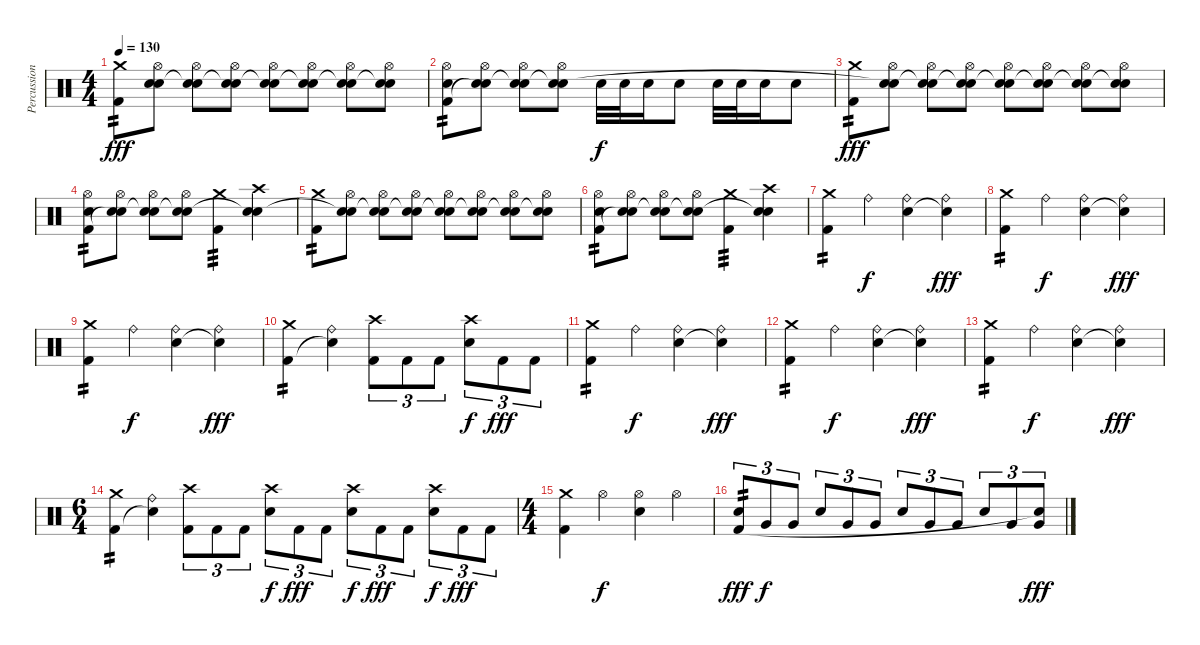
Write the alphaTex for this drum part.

\track ("Percussion" "Percussion") {instrument percussion}
\staff {score}
\articulation defaults
\ts (4 4)
\tempo 130
\clef neutral
\ks c
("Crash medium (hit)" "Kick (hit) 2").8{tp 2 dy fff} ("Hi-Hat (open)" "Electric Snare (hit)" "Snare (hit)"{t}).8 ("Hi-Hat (open)" "Electric Snare (hit)" "Snare (hit)"{t}).8 ("Hi-Hat (open)" "Electric Snare (hit)" "Snare (hit)"{t}).8 ("Hi-Hat (open)" "Electric Snare (hit)" "Snare (hit)"{t}).8 ("Hi-Hat (open)" "Electric Snare (hit)" "Snare (hit)"{t}).8 ("Hi-Hat (open)" "Electric Snare (hit)" "Snare (hit)"{t}).8 ("Hi-Hat (open)" "Electric Snare (hit)" "Snare (hit)"{t}).8 |
("Hi-Hat (open)" "Electric Snare (hit)" "Kick (hit) 2").8{tp 2} ("Hi-Hat (open)" "Electric Snare (hit)" "Snare (hit)"{t}).8 ("Hi-Hat (open)" "Electric Snare (hit)" "Snare (hit)"{t}).8 ("Hi-Hat (open)" "Electric Snare (hit)" "Snare (hit)"{t}).8 "Electric Snare (hit)".32{dy f} "Electric Snare (hit)".32 "Electric Snare (hit)".16 "Electric Snare (hit)".8 "Electric Snare (hit)".32 "Electric Snare (hit)".32 "Electric Snare (hit)".16 "Electric Snare (hit)".8 |
("Crash medium (hit)" "Kick (hit) 2").8{tp 2 dy fff} ("Hi-Hat (open)" "Electric Snare (hit)" "Snare (hit)"{t}).8 ("Hi-Hat (open)" "Electric Snare (hit)" "Snare (hit)"{t}).8 ("Hi-Hat (open)" "Electric Snare (hit)" "Snare (hit)"{t}).8 ("Hi-Hat (open)" "Electric Snare (hit)" "Snare (hit)"{t}).8 ("Hi-Hat (open)" "Electric Snare (hit)" "Snare (hit)"{t}).8 ("Hi-Hat (open)" "Electric Snare (hit)" "Snare (hit)"{t}).8 ("Hi-Hat (open)" "Electric Snare (hit)" "Snare (hit)"{t}).8 |
("Hi-Hat (open)" "Electric Snare (hit)" "Kick (hit) 2").8{tp 2} ("Hi-Hat (open)" "Electric Snare (hit)" "Snare (hit)"{t}).8 ("Hi-Hat (open)" "Electric Snare (hit)" "Snare (hit)"{t}).8 ("Hi-Hat (open)" "Electric Snare (hit)" "Snare (hit)"{t}).8 ("Crash medium (hit)" "Kick (hit) 2").4{tp 3} ("Crash high (hit)" "Electric Snare (hit)" "Snare (hit)"{t}).4 |
("Crash medium (hit)" "Kick (hit) 2").8{tp 2} ("Hi-Hat (open)" "Electric Snare (hit)" "Snare (hit)"{t}).8 ("Hi-Hat (open)" "Electric Snare (hit)" "Snare (hit)"{t}).8 ("Hi-Hat (open)" "Electric Snare (hit)" "Snare (hit)"{t}).8 ("Hi-Hat (open)" "Electric Snare (hit)" "Snare (hit)"{t}).8 ("Hi-Hat (open)" "Electric Snare (hit)" "Snare (hit)"{t}).8 ("Hi-Hat (open)" "Electric Snare (hit)" "Snare (hit)"{t}).8 ("Hi-Hat (open)" "Electric Snare (hit)" "Snare (hit)"{t}).8 |
("Hi-Hat (open)" "Electric Snare (hit)" "Kick (hit) 2").8{tp 2} ("Hi-Hat (open)" "Electric Snare (hit)" "Snare (hit)"{t}).8 ("Hi-Hat (open)" "Electric Snare (hit)" "Snare (hit)"{t}).8 ("Hi-Hat (open)" "Electric Snare (hit)" "Snare (hit)"{t}).8 ("Crash medium (hit)" "Kick (hit) 2").4{tp 3} ("Crash high (hit)" "Electric Snare (hit)" "Snare (hit)"{t}).4 |
("Crash medium (hit)" "Kick (hit) 2").4{tp 2} "Ride (bell)".4{dy f} ("Ride (bell)" "Electric Snare (hit)").4 ("Ride (bell)" "Snare (hit)"{t}).4{dy fff} |
("Crash medium (hit)" "Kick (hit) 2").4{tp 2} "Ride (bell)".4{dy f} ("Ride (bell)" "Electric Snare (hit)").4 ("Ride (bell)" "Snare (hit)"{t}).4{dy fff} |
("Crash medium (hit)" "Kick (hit) 2").4{tp 2} "Ride (bell)".4{dy f} ("Ride (bell)" "Electric Snare (hit)").4 ("Ride (bell)" "Snare (hit)"{t}).4{dy fff} |
("Crash medium (hit)" "Kick (hit) 2").4{tp 2} ("Ride (bell)" "Snare (hit)"{t}).4 ("Crash high (hit)" "Kick (hit) 2").8{tu (3 2)} "Kick (hit) 2".8{tu (3 2)} "Kick (hit) 2".8{tu (3 2)} ("Crash high (hit)" "Electric Snare (hit)").8{tu (3 2) dy f} "Kick (hit) 2".8{tu (3 2) dy fff} "Kick (hit) 2".8{tu (3 2)} |
("Crash medium (hit)" "Kick (hit) 2").4{tp 2} "Ride (bell)".4{dy f} ("Ride (bell)" "Electric Snare (hit)").4 ("Ride (bell)" "Snare (hit)"{t}).4{dy fff} |
("Crash medium (hit)" "Kick (hit) 2").4{tp 2} "Ride (bell)".4{dy f} ("Ride (bell)" "Electric Snare (hit)").4 ("Ride (bell)" "Snare (hit)"{t}).4{dy fff} |
("Crash medium (hit)" "Kick (hit) 2").4{tp 2} "Ride (bell)".4{dy f} ("Ride (bell)" "Electric Snare (hit)").4 ("Ride (bell)" "Snare (hit)"{t}).4{dy fff} |
\ts (6 4)
("Crash medium (hit)" "Kick (hit) 2").4{tp 2} ("Ride (bell)" "Snare (hit)"{t}).4 ("Crash high (hit)" "Kick (hit) 2").8{tu (3 2)} "Kick (hit) 2".8{tu (3 2)} "Kick (hit) 2".8{tu (3 2)} ("Crash high (hit)" "Electric Snare (hit)").8{tu (3 2) dy f} "Kick (hit) 2".8{tu (3 2) dy fff} "Kick (hit) 2".8{tu (3 2)} ("Crash high (hit)" "Electric Snare (hit)").8{tu (3 2) dy f} "Kick (hit) 2".8{tu (3 2) dy fff} "Kick (hit) 2".8{tu (3 2)} ("Crash high (hit)" "Electric Snare (hit)").8{tu (3 2) dy f} "Kick (hit) 2".8{tu (3 2) dy fff} "Kick (hit) 2".8{tu (3 2)} |
\ts (4 4)
("Crash medium (hit)" "Kick (hit) 2").4 "Hi-Hat (open)".4{dy f} ("Hi-Hat (open)" "Electric Snare (hit)").4 "Hi-Hat (open)".4 |
("Electric Snare (hit)" "Kick (hit) 2").8{tu (3 2) tp 2 dy fff} "Very Low Tom (hit)".8{tu (3 2) dy f} "Very Low Tom (hit)".8{tu (3 2)} "Electric Snare (hit)".8{tu (3 2)} "Very Low Tom (hit)".8{tu (3 2)} "Very Low Tom (hit)".8{tu (3 2)} "Electric Snare (hit)".8{tu (3 2)} "Very Low Tom (hit)".8{tu (3 2)} "Very Low Tom (hit)".8{tu (3 2)} "Electric Snare (hit)".8{tu (3 2)} "Very Low Tom (hit)".8{tu (3 2)} ("Very Low Tom (hit)" "Snare (hit)"{t}).8{tu (3 2) dy fff}
